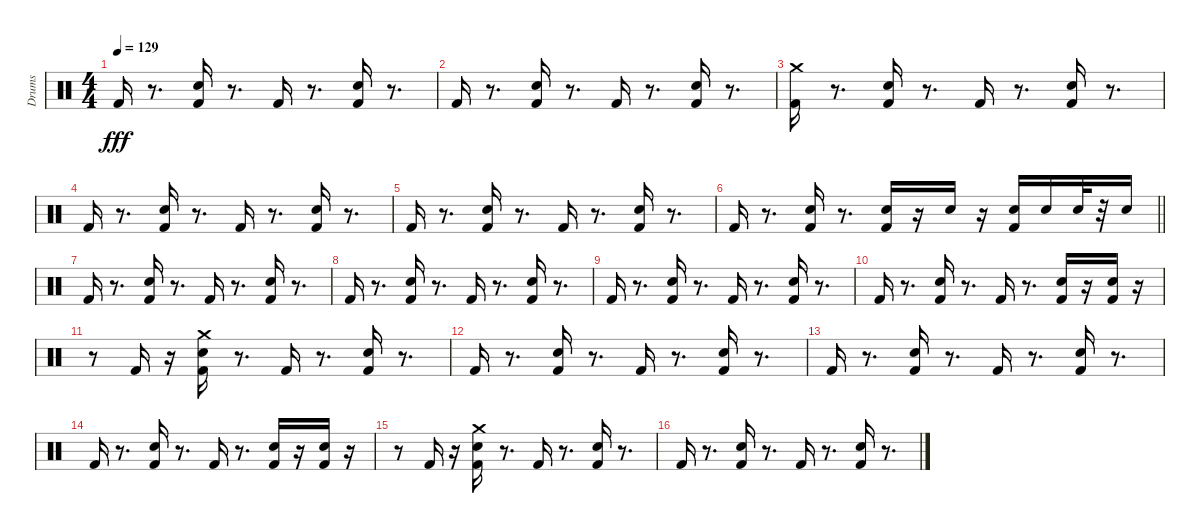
\track ("Drums" "Drums") {instrument percussion}
\staff {score}
\articulation defaults
\ts (4 4)
\tempo 129
\clef neutral
\ks c "Kick (hit) 2".16{dy fff}
r.8{d} ("Kick (hit) 2" "Electric Snare (hit)").16 r.8{d} "Kick (hit) 2".16 r.8{d} ("Kick (hit) 2" "Electric Snare (hit)").16 r.8{d} |
"Kick (hit) 2".16 r.8{d} ("Kick (hit) 2" "Electric Snare (hit)").16 r.8{d} "Kick (hit) 2".16 r.8{d} ("Kick (hit) 2" "Electric Snare (hit)").16 r.8{d} |
("Crash medium (hit)" "Kick (hit) 2").16 r.8{d} ("Kick (hit) 2" "Electric Snare (hit)").16 r.8{d} "Kick (hit) 2".16 r.8{d} ("Kick (hit) 2" "Electric Snare (hit)").16 r.8{d} |
"Kick (hit) 2".16 r.8{d} ("Kick (hit) 2" "Electric Snare (hit)").16 r.8{d} "Kick (hit) 2".16 r.8{d} ("Kick (hit) 2" "Electric Snare (hit)").16 r.8{d} |
"Kick (hit) 2".16 r.8{d} ("Kick (hit) 2" "Electric Snare (hit)").16 r.8{d} "Kick (hit) 2".16 r.8{d} ("Kick (hit) 2" "Electric Snare (hit)").16 r.8{d} |
\barLineRight lightlight "Kick (hit) 2".16
r.8{d} ("Kick (hit) 2" "Electric Snare (hit)").16 r.8{d} ("Kick (hit) 2" "Electric Snare (hit)").16 r.16 "Electric Snare (hit)".16 r.16 ("Kick (hit) 2" "Electric Snare (hit)").16 "Electric Snare (hit)".16 "Electric Snare (hit)".32 r.32 "Electric Snare (hit)".16 |
"Kick (hit) 2".16 r.8{d} ("Kick (hit) 2" "Electric Snare (hit)").16 r.8{d} "Kick (hit) 2".16 r.8{d} ("Kick (hit) 2" "Electric Snare (hit)").16 r.8{d} |
"Kick (hit) 2".16 r.8{d} ("Kick (hit) 2" "Electric Snare (hit)").16 r.8{d} "Kick (hit) 2".16 r.8{d} ("Kick (hit) 2" "Electric Snare (hit)").16 r.8{d} |
"Kick (hit) 2".16 r.8{d} ("Kick (hit) 2" "Electric Snare (hit)").16 r.8{d} "Kick (hit) 2".16 r.8{d} ("Kick (hit) 2" "Electric Snare (hit)").16 r.8{d} |
"Kick (hit) 2".16 r.8{d} ("Kick (hit) 2" "Electric Snare (hit)").16 r.8{d} "Kick (hit) 2".16 r.8{d} ("Kick (hit) 2" "Electric Snare (hit)").16 r.16 ("Kick (hit) 2" "Electric Snare (hit)").16 r.16 |
r.8 "Kick (hit) 2".16 r.16 ("Crash medium (hit)" "Kick (hit) 2" "Electric Snare (hit)").16 r.8{d} "Kick (hit) 2".16 r.8{d} ("Kick (hit) 2" "Electric Snare (hit)").16 r.8{d} |
"Kick (hit) 2".16 r.8{d} ("Kick (hit) 2" "Electric Snare (hit)").16 r.8{d} "Kick (hit) 2".16 r.8{d} ("Kick (hit) 2" "Electric Snare (hit)").16 r.8{d} |
"Kick (hit) 2".16 r.8{d} ("Kick (hit) 2" "Electric Snare (hit)").16 r.8{d} "Kick (hit) 2".16 r.8{d} ("Kick (hit) 2" "Electric Snare (hit)").16 r.8{d} |
"Kick (hit) 2".16 r.8{d} ("Kick (hit) 2" "Electric Snare (hit)").16 r.8{d} "Kick (hit) 2".16 r.8{d} ("Kick (hit) 2" "Electric Snare (hit)").16 r.16 ("Kick (hit) 2" "Electric Snare (hit)").16 r.16 |
r.8 "Kick (hit) 2".16 r.16 ("Crash medium (hit)" "Kick (hit) 2" "Electric Snare (hit)").16 r.8{d} "Kick (hit) 2".16 r.8{d} ("Kick (hit) 2" "Electric Snare (hit)").16 r.8{d} |
"Kick (hit) 2".16 r.8{d} ("Kick (hit) 2" "Electric Snare (hit)").16 r.8{d} "Kick (hit) 2".16 r.8{d} ("Kick (hit) 2" "Electric Snare (hit)").16 r.8{d}
